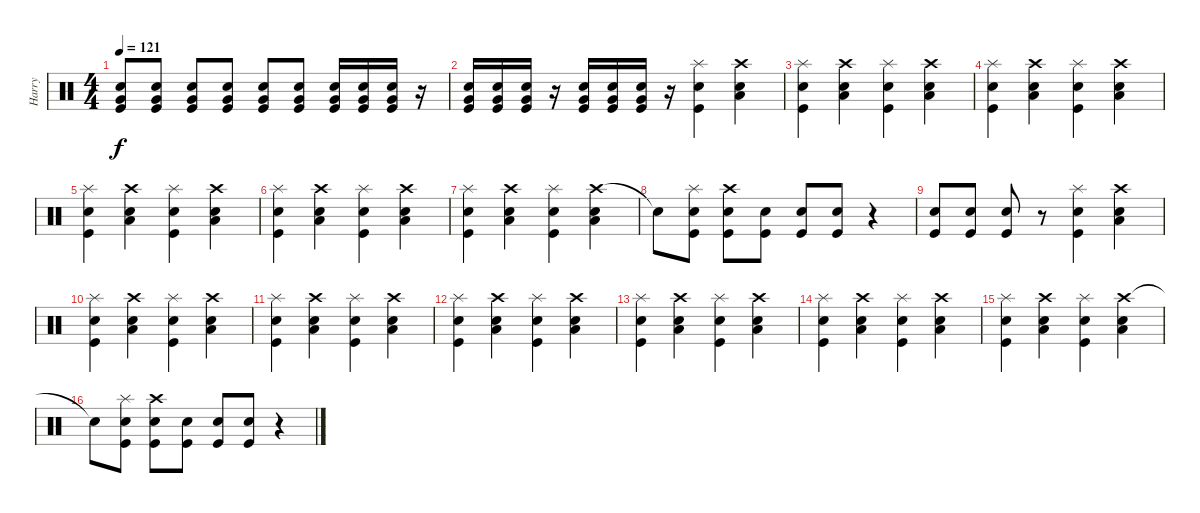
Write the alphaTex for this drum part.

\track ("Harry" "Harry") {instrument percussion}
\staff {score}
\articulation defaults
\ts (4 4)
\tempo 121
\clef neutral
\ks c
("Very Low Tom (hit)" "Kick (hit)" "Snare (hit) 2").8{dy f} ("Very Low Tom (hit)" "Kick (hit)" "Snare (hit) 2").8 ("Very Low Tom (hit)" "Kick (hit)" "Snare (hit) 2").8 ("Very Low Tom (hit)" "Kick (hit)" "Snare (hit) 2").8 ("Very Low Tom (hit)" "Kick (hit)" "Snare (hit) 2").8 ("Very Low Tom (hit)" "Kick (hit)" "Snare (hit) 2").8 ("Very Low Tom (hit)" "Kick (hit)" "Snare (hit) 2").16 ("Very Low Tom (hit)" "Kick (hit)" "Snare (hit) 2").16 ("Very Low Tom (hit)" "Kick (hit)" "Snare (hit) 2").16 r.16 |
("Very Low Tom (hit)" "Kick (hit)" "Snare (hit) 2").16 ("Very Low Tom (hit)" "Kick (hit)" "Snare (hit) 2").16 ("Very Low Tom (hit)" "Kick (hit)" "Snare (hit) 2").16 r.16 ("Very Low Tom (hit)" "Kick (hit)" "Snare (hit) 2").16 ("Very Low Tom (hit)" "Kick (hit)" "Snare (hit) 2").16 ("Very Low Tom (hit)" "Kick (hit)" "Snare (hit) 2").16 r.16 ("Splash (hit)" "Snare (hit) 2" "Kick (hit)").4 ("Crash high (hit)" "Snare (hit) 2" "Low Tom (hit)").4 |
("Splash (hit)" "Snare (hit) 2" "Kick (hit)").4 ("Crash high (hit)" "Snare (hit) 2" "Low Tom (hit)").4 ("Splash (hit)" "Snare (hit) 2" "Kick (hit)").4 ("Crash high (hit)" "Snare (hit) 2" "Low Tom (hit)").4 |
("Splash (hit)" "Snare (hit) 2" "Kick (hit)").4 ("Crash high (hit)" "Snare (hit) 2" "Low Tom (hit)").4 ("Splash (hit)" "Snare (hit) 2" "Kick (hit)").4 ("Crash high (hit)" "Snare (hit) 2" "Low Tom (hit)").4 |
("Splash (hit)" "Snare (hit) 2" "Kick (hit)").4 ("Crash high (hit)" "Snare (hit) 2" "Low Tom (hit)").4 ("Splash (hit)" "Snare (hit) 2" "Kick (hit)").4 ("Crash high (hit)" "Snare (hit) 2" "Low Tom (hit)").4 |
("Splash (hit)" "Snare (hit) 2" "Kick (hit)").4 ("Crash high (hit)" "Snare (hit) 2" "Low Tom (hit)").4 ("Splash (hit)" "Snare (hit) 2" "Kick (hit)").4 ("Crash high (hit)" "Snare (hit) 2" "Low Tom (hit)").4 |
("Splash (hit)" "Snare (hit) 2" "Kick (hit)").4 ("Crash high (hit)" "Snare (hit) 2" "Low Tom (hit)").4 ("Splash (hit)" "Snare (hit) 2" "Kick (hit)").4 ("Crash high (hit)" "Snare (hit) 2" "Low Tom (hit)").4 |
"Snare (hit)"{t}.8 ("Splash (hit)" "Kick (hit)" "Snare (hit) 2").8 ("Crash high (hit)" "Kick (hit)" "Snare (hit) 2").8 ("Kick (hit)" "Snare (hit) 2").8 ("Kick (hit)" "Snare (hit) 2").8 ("Kick (hit)" "Snare (hit) 2").8 r.4 |
("Kick (hit)" "Snare (hit) 2").8 ("Kick (hit)" "Snare (hit) 2").8 ("Kick (hit)" "Snare (hit) 2").8 r.8 ("Splash (hit)" "Snare (hit) 2" "Kick (hit)").4 ("Crash high (hit)" "Snare (hit) 2" "Low Tom (hit)").4 |
("Splash (hit)" "Snare (hit) 2" "Kick (hit)").4 ("Crash high (hit)" "Snare (hit) 2" "Low Tom (hit)").4 ("Splash (hit)" "Snare (hit) 2" "Kick (hit)").4 ("Crash high (hit)" "Snare (hit) 2" "Low Tom (hit)").4 |
("Splash (hit)" "Snare (hit) 2" "Kick (hit)").4 ("Crash high (hit)" "Snare (hit) 2" "Low Tom (hit)").4 ("Splash (hit)" "Snare (hit) 2" "Kick (hit)").4 ("Crash high (hit)" "Snare (hit) 2" "Low Tom (hit)").4 |
("Splash (hit)" "Snare (hit) 2" "Kick (hit)").4 ("Crash high (hit)" "Snare (hit) 2" "Low Tom (hit)").4 ("Splash (hit)" "Snare (hit) 2" "Kick (hit)").4 ("Crash high (hit)" "Snare (hit) 2" "Low Tom (hit)").4 |
("Splash (hit)" "Snare (hit) 2" "Kick (hit)").4 ("Crash high (hit)" "Snare (hit) 2" "Low Tom (hit)").4 ("Splash (hit)" "Snare (hit) 2" "Kick (hit)").4 ("Crash high (hit)" "Snare (hit) 2" "Low Tom (hit)").4 |
("Splash (hit)" "Snare (hit) 2" "Kick (hit)").4 ("Crash high (hit)" "Snare (hit) 2" "Low Tom (hit)").4 ("Splash (hit)" "Snare (hit) 2" "Kick (hit)").4 ("Crash high (hit)" "Snare (hit) 2" "Low Tom (hit)").4 |
("Splash (hit)" "Snare (hit) 2" "Kick (hit)").4 ("Crash high (hit)" "Snare (hit) 2" "Low Tom (hit)").4 ("Splash (hit)" "Snare (hit) 2" "Kick (hit)").4 ("Crash high (hit)" "Snare (hit) 2" "Low Tom (hit)").4 |
"Snare (hit)"{t}.8 ("Splash (hit)" "Kick (hit)" "Snare (hit) 2").8 ("Crash high (hit)" "Kick (hit)" "Snare (hit) 2").8 ("Kick (hit)" "Snare (hit) 2").8 ("Kick (hit)" "Snare (hit) 2").8 ("Kick (hit)" "Snare (hit) 2").8 r.4
